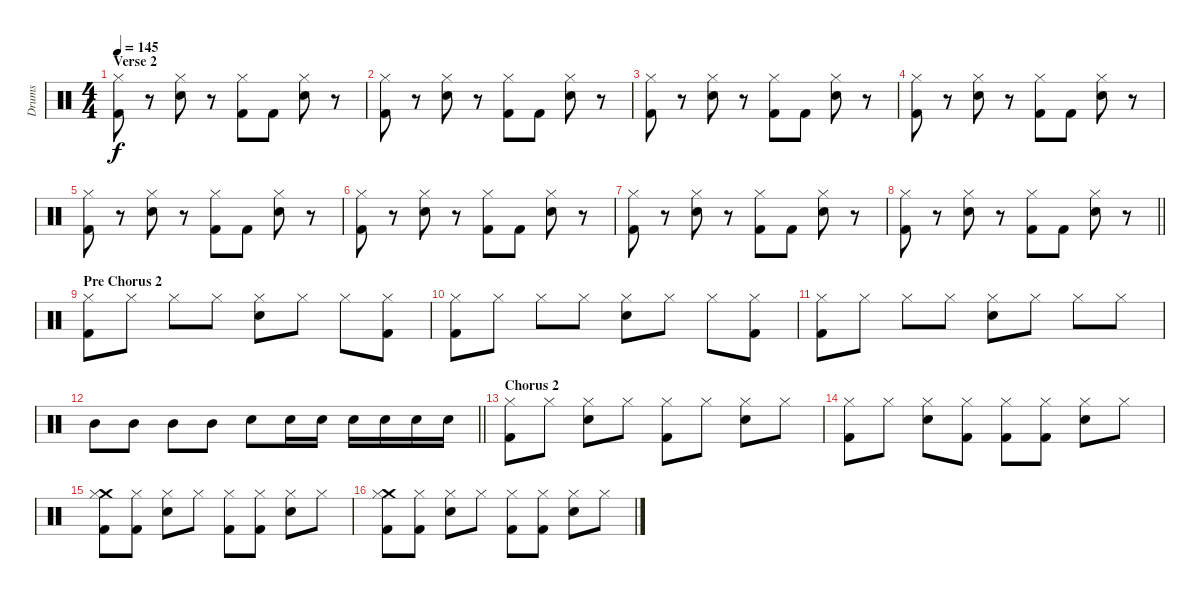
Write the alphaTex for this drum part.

\track ("Drums" "Drums") {instrument percussion}
\staff {score}
\articulation defaults
\ts (4 4)
\section ("" "Verse 2")
\tempo 145
\clef neutral
\ks c
("Hi-Hat (closed)" "Kick (hit) 2").8{dy f} r.8 ("Hi-Hat (closed)" "Electric Snare (hit)").8 r.8 ("Hi-Hat (closed)" "Kick (hit) 2").8 "Kick (hit) 2".8 ("Hi-Hat (closed)" "Electric Snare (hit)").8 r.8 |
("Hi-Hat (closed)" "Kick (hit) 2").8 r.8 ("Hi-Hat (closed)" "Electric Snare (hit)").8 r.8 ("Hi-Hat (closed)" "Kick (hit) 2").8 "Kick (hit) 2".8 ("Hi-Hat (closed)" "Electric Snare (hit)").8 r.8 |
("Hi-Hat (closed)" "Kick (hit) 2").8 r.8 ("Hi-Hat (closed)" "Electric Snare (hit)").8 r.8 ("Hi-Hat (closed)" "Kick (hit) 2").8 "Kick (hit) 2".8 ("Hi-Hat (closed)" "Electric Snare (hit)").8 r.8 |
("Hi-Hat (closed)" "Kick (hit) 2").8 r.8 ("Hi-Hat (closed)" "Electric Snare (hit)").8 r.8 ("Hi-Hat (closed)" "Kick (hit) 2").8 "Kick (hit) 2".8 ("Hi-Hat (closed)" "Electric Snare (hit)").8 r.8 |
("Hi-Hat (closed)" "Kick (hit) 2").8 r.8 ("Hi-Hat (closed)" "Electric Snare (hit)").8 r.8 ("Hi-Hat (closed)" "Kick (hit) 2").8 "Kick (hit) 2".8 ("Hi-Hat (closed)" "Electric Snare (hit)").8 r.8 |
("Hi-Hat (closed)" "Kick (hit) 2").8 r.8 ("Hi-Hat (closed)" "Electric Snare (hit)").8 r.8 ("Hi-Hat (closed)" "Kick (hit) 2").8 "Kick (hit) 2".8 ("Hi-Hat (closed)" "Electric Snare (hit)").8 r.8 |
("Hi-Hat (closed)" "Kick (hit) 2").8 r.8 ("Hi-Hat (closed)" "Electric Snare (hit)").8 r.8 ("Hi-Hat (closed)" "Kick (hit) 2").8 "Kick (hit) 2".8 ("Hi-Hat (closed)" "Electric Snare (hit)").8 r.8 |
\barLineRight lightlight
("Hi-Hat (closed)" "Kick (hit) 2").8 r.8 ("Hi-Hat (closed)" "Electric Snare (hit)").8 r.8 ("Hi-Hat (closed)" "Kick (hit) 2").8 "Kick (hit) 2".8 ("Hi-Hat (closed)" "Electric Snare (hit)").8 r.8 |
\section ("" "Pre Chorus 2")
("Hi-Hat (closed)" "Kick (hit) 2").8 "Hi-Hat (closed)".8 "Hi-Hat (closed)".8 "Hi-Hat (closed)".8 ("Hi-Hat (closed)" "Electric Snare (hit)").8 "Hi-Hat (closed)".8 "Hi-Hat (closed)".8 ("Hi-Hat (closed)" "Kick (hit) 2").8 |
("Hi-Hat (closed)" "Kick (hit) 2").8 "Hi-Hat (closed)".8 "Hi-Hat (closed)".8 "Hi-Hat (closed)".8 ("Hi-Hat (closed)" "Electric Snare (hit)").8 "Hi-Hat (closed)".8 "Hi-Hat (closed)".8 ("Hi-Hat (closed)" "Kick (hit) 2").8 |
("Hi-Hat (closed)" "Kick (hit) 2").8 "Hi-Hat (closed)".8 "Hi-Hat (closed)".8 "Hi-Hat (closed)".8 ("Hi-Hat (closed)" "Electric Snare (hit)").8 "Hi-Hat (closed)".8 "Hi-Hat (closed)".8 "Hi-Hat (closed)".8 |
\barLineRight lightlight "Mid Tom (hit)".8 "Mid Tom (hit)".8 "Mid Tom (hit)".8 "Mid Tom (hit)".8 "Electric Snare (hit)".8 "Electric Snare (hit)".16 "Electric Snare (hit)".16 "Electric Snare (hit)".16 "Electric Snare (hit)".16 "Electric Snare (hit)".16 "Electric Snare (hit)".16
|
\section ("" "Chorus 2")
("Hi-Hat (closed)" "Kick (hit) 2").8 "Hi-Hat (closed)".8 ("Hi-Hat (closed)" "Electric Snare (hit)").8 "Hi-Hat (closed)".8 ("Hi-Hat (closed)" "Kick (hit) 2").8 "Hi-Hat (closed)".8 ("Hi-Hat (closed)" "Electric Snare (hit)").8 "Hi-Hat (closed)".8 |
("Hi-Hat (closed)" "Kick (hit) 2").8 "Hi-Hat (closed)".8 ("Hi-Hat (closed)" "Electric Snare (hit)").8 ("Hi-Hat (closed)" "Kick (hit) 2").8 ("Hi-Hat (closed)" "Kick (hit) 2").8 ("Hi-Hat (closed)" "Kick (hit) 2").8 ("Hi-Hat (closed)" "Electric Snare (hit)").8 "Hi-Hat (closed)".8 |
("Crash medium (hit)" "Hi-Hat (closed)" "Kick (hit) 2").8 ("Hi-Hat (closed)" "Kick (hit) 2").8 ("Hi-Hat (closed)" "Electric Snare (hit)").8 "Hi-Hat (closed)".8 ("Hi-Hat (closed)" "Kick (hit) 2").8 ("Hi-Hat (closed)" "Kick (hit) 2").8 ("Hi-Hat (closed)" "Electric Snare (hit)").8 "Hi-Hat (closed)".8 |
("Crash medium (hit)" "Hi-Hat (closed)" "Kick (hit) 2").8 ("Hi-Hat (closed)" "Kick (hit) 2").8 ("Hi-Hat (closed)" "Electric Snare (hit)").8 "Hi-Hat (closed)".8 ("Hi-Hat (closed)" "Kick (hit) 2").8 ("Hi-Hat (closed)" "Kick (hit) 2").8 ("Hi-Hat (closed)" "Electric Snare (hit)").8 "Hi-Hat (closed)".8
